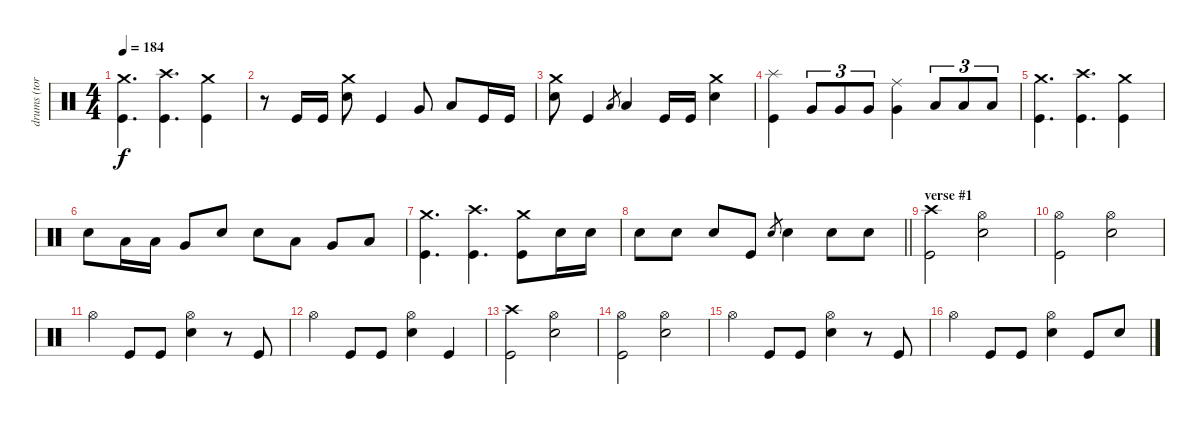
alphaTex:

\track ("drums (tora)" "drums (tor") {instrument percussion}
\staff {score}
\articulation defaults
\ts (4 4)
\tempo 184
\clef neutral
\ks c
("Crash medium (hit)" "Kick (hit)").4{d dy f} ("Crash high (hit)" "Kick (hit)").4{d} ("Crash medium (hit)" "Kick (hit)").4 |
r.8 "Kick (hit)".16 "Kick (hit)".16 ("Crash medium (hit)" "Snare (hit) 2").8 "Kick (hit)".4 "Very Low Tom (hit)".8 "Low Floor Tom (hit)".8 "Kick (hit)".16 "Kick (hit)".16 |
("Crash medium (hit)" "Snare (hit) 2").8 "Kick (hit)".4 "Low Floor Tom (hit)".8{gr} "Low Floor Tom (hit)".4 "Kick (hit)".16 "Kick (hit)".16 ("Crash medium (hit)" "Snare (hit) 2").4 |
("Splash (hit)" "Kick (hit)").4 "Very Low Tom (hit)".8{tu (3 2)} "Very Low Tom (hit)".8{tu (3 2)} "Very Low Tom (hit)".8{tu (3 2)} ("Ride (middle)" "Very Low Tom (hit)").4 "Low Floor Tom (hit)".8{tu (3 2)} "Low Floor Tom (hit)".8{tu (3 2)} "Low Floor Tom (hit)".8{tu (3 2)} |
("Crash medium (hit)" "Kick (hit)").4{d} ("Crash high (hit)" "Kick (hit)").4{d} ("Crash medium (hit)" "Kick (hit)").4 |
"Snare (hit) 2".8 "Low Tom (hit)".16 "Low Tom (hit)".16 "Very Low Tom (hit)".8 "Snare (hit) 2".8 "Snare (hit) 2".8 "Low Tom (hit)".8 "Very Low Tom (hit)".8 "Low Floor Tom (hit)".8 |
("Crash medium (hit)" "Kick (hit)").4{d} ("Crash high (hit)" "Kick (hit)").4{d} ("Crash medium (hit)" "Kick (hit)").8 "Snare (hit) 2".16 "Snare (hit) 2".16 |
\barLineRight lightlight "Snare (hit) 2".8 "Snare (hit) 2".8 "Snare (hit) 2".8 "Kick (hit)".8 "Snare (hit) 2".8{gr} "Snare (hit) 2".4 "Snare (hit) 2".8 "Snare (hit) 2".8
|
\section ("" "verse #1")
("Crash high (hit)" "Kick (hit)").2 ("Hi-Hat (open)" "Snare (hit) 2").2 |
("Hi-Hat (open)" "Kick (hit)").2 ("Hi-Hat (open)" "Snare (hit) 2").2 |
"Hi-Hat (open)".4 "Kick (hit)".8 "Kick (hit)".8 ("Hi-Hat (open)" "Snare (hit) 2").4 r.8 "Kick (hit)".8 |
"Hi-Hat (open)".4 "Kick (hit)".8 "Kick (hit)".8 ("Hi-Hat (open)" "Snare (hit) 2").4 "Kick (hit)".4 |
("Crash high (hit)" "Kick (hit)").2 ("Hi-Hat (open)" "Snare (hit) 2").2 |
("Hi-Hat (open)" "Kick (hit)").2 ("Hi-Hat (open)" "Snare (hit) 2").2 |
"Hi-Hat (open)".4 "Kick (hit)".8 "Kick (hit)".8 ("Hi-Hat (open)" "Snare (hit) 2").4 r.8 "Kick (hit)".8 |
"Hi-Hat (open)".4 "Kick (hit)".8 "Kick (hit)".8 ("Hi-Hat (open)" "Snare (hit) 2").4 "Kick (hit)".8 "Snare (hit) 2".8
